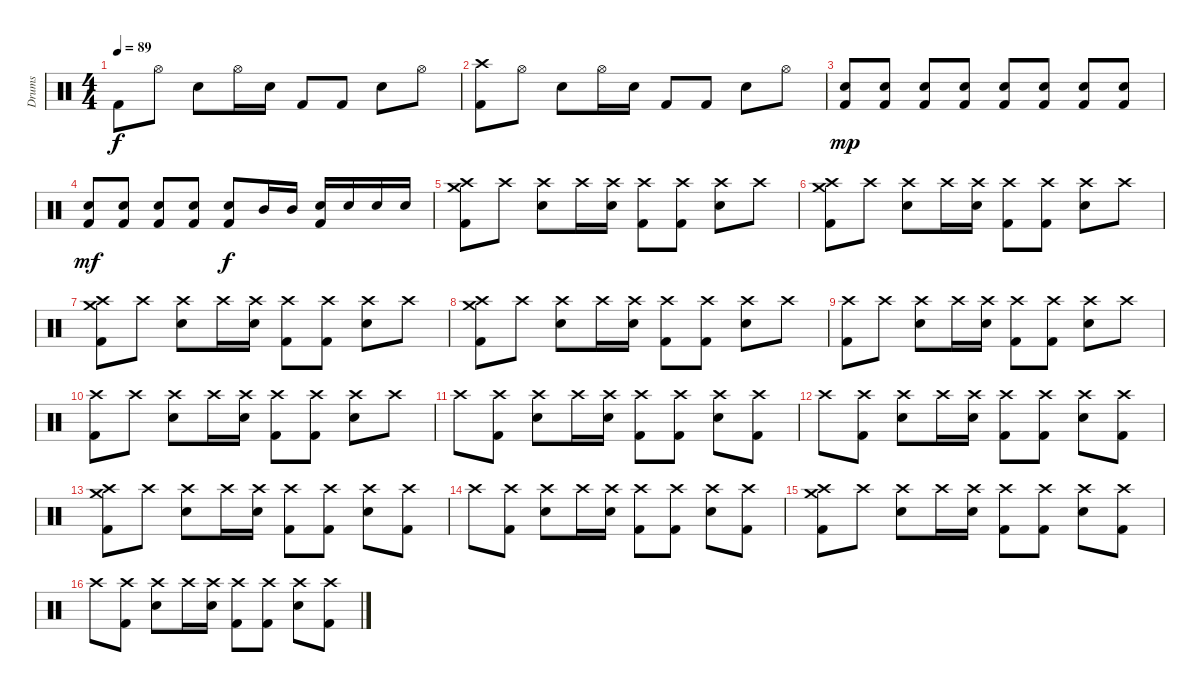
\track ("Drums" "Drums") {instrument percussion}
\staff {score}
\articulation defaults
\ts (4 4)
\tempo 89
\clef neutral
\ks c "Kick (hit) 2".8{dy f} "Hi-Hat (open)".8 "Electric Snare (hit)".8 "Hi-Hat (open)".16 "Electric Snare (hit)".16 "Kick (hit) 2".8 "Kick (hit) 2".8 "Electric Snare (hit)".8 "Hi-Hat (open)".8
|
("Crash high (hit)" "Kick (hit) 2").8 "Hi-Hat (open)".8 "Electric Snare (hit)".8 "Hi-Hat (open)".16 "Electric Snare (hit)".16 "Kick (hit) 2".8 "Kick (hit) 2".8 "Electric Snare (hit)".8 "Hi-Hat (open)".8 |
("Electric Snare (hit)" "Kick (hit) 2").8{dy mp} ("Electric Snare (hit)" "Kick (hit) 2").8 ("Electric Snare (hit)" "Kick (hit) 2").8 ("Electric Snare (hit)" "Kick (hit) 2").8 ("Electric Snare (hit)" "Kick (hit) 2").8 ("Electric Snare (hit)" "Kick (hit) 2").8 ("Electric Snare (hit)" "Kick (hit) 2").8 ("Electric Snare (hit)" "Kick (hit) 2").8 |
("Electric Snare (hit)" "Kick (hit) 2").8{dy mf} ("Electric Snare (hit)" "Kick (hit) 2").8 ("Electric Snare (hit)" "Kick (hit) 2").8 ("Electric Snare (hit)" "Kick (hit) 2").8 ("Electric Snare (hit)" "Kick (hit) 2").8{dy f} "Mid Tom (hit)".16 "Mid Tom (hit)".16 ("Electric Snare (hit)" "Kick (hit) 2").16 "Electric Snare (hit)".16 "Electric Snare (hit)".16 "Electric Snare (hit)".16 |
("Crash high (hit)" "Crash medium (hit)" "Kick (hit) 2").8 "Crash high (hit)".8 ("Crash high (hit)" "Electric Snare (hit)").8 "Crash high (hit)".16 ("Crash high (hit)" "Electric Snare (hit)").16 ("Crash high (hit)" "Kick (hit) 2").8 ("Crash high (hit)" "Kick (hit) 2").8 ("Crash high (hit)" "Electric Snare (hit)").8 "Crash high (hit)".8 |
("Crash high (hit)" "Crash medium (hit)" "Kick (hit) 2").8 "Crash high (hit)".8 ("Crash high (hit)" "Electric Snare (hit)").8 "Crash high (hit)".16 ("Crash high (hit)" "Electric Snare (hit)").16 ("Crash high (hit)" "Kick (hit) 2").8 ("Crash high (hit)" "Kick (hit) 2").8 ("Crash high (hit)" "Electric Snare (hit)").8 "Crash high (hit)".8 |
("Crash high (hit)" "Crash medium (hit)" "Kick (hit) 2").8 "Crash high (hit)".8 ("Crash high (hit)" "Electric Snare (hit)").8 "Crash high (hit)".16 ("Crash high (hit)" "Electric Snare (hit)").16 ("Crash high (hit)" "Kick (hit) 2").8 ("Crash high (hit)" "Kick (hit) 2").8 ("Crash high (hit)" "Electric Snare (hit)").8 "Crash high (hit)".8 |
("Crash high (hit)" "Crash medium (hit)" "Kick (hit) 2").8 "Crash high (hit)".8 ("Crash high (hit)" "Electric Snare (hit)").8 "Crash high (hit)".16 ("Crash high (hit)" "Electric Snare (hit)").16 ("Crash high (hit)" "Kick (hit) 2").8 ("Crash high (hit)" "Kick (hit) 2").8 ("Crash high (hit)" "Electric Snare (hit)").8 "Crash high (hit)".8 |
("Crash high (hit)" "Kick (hit) 2").8 "Crash high (hit)".8 ("Crash high (hit)" "Electric Snare (hit)").8 "Crash high (hit)".16 ("Crash high (hit)" "Electric Snare (hit)").16 ("Crash high (hit)" "Kick (hit) 2").8 ("Crash high (hit)" "Kick (hit) 2").8 ("Crash high (hit)" "Electric Snare (hit)").8 "Crash high (hit)".8 |
("Crash high (hit)" "Kick (hit) 2").8 "Crash high (hit)".8 ("Crash high (hit)" "Electric Snare (hit)").8 "Crash high (hit)".16 ("Crash high (hit)" "Electric Snare (hit)").16 ("Crash high (hit)" "Kick (hit) 2").8 ("Crash high (hit)" "Kick (hit) 2").8 ("Crash high (hit)" "Electric Snare (hit)").8 "Crash high (hit)".8 |
"Crash high (hit)".8 ("Crash high (hit)" "Kick (hit) 2").8 ("Crash high (hit)" "Electric Snare (hit)").8 "Crash high (hit)".16 ("Crash high (hit)" "Electric Snare (hit)").16 ("Crash high (hit)" "Kick (hit) 2").8 ("Crash high (hit)" "Kick (hit) 2").8 ("Crash high (hit)" "Electric Snare (hit)").8 ("Crash high (hit)" "Kick (hit) 2").8 |
"Crash high (hit)".8 ("Crash high (hit)" "Kick (hit) 2").8 ("Crash high (hit)" "Electric Snare (hit)").8 "Crash high (hit)".16 ("Crash high (hit)" "Electric Snare (hit)").16 ("Crash high (hit)" "Kick (hit) 2").8 ("Crash high (hit)" "Kick (hit) 2").8 ("Crash high (hit)" "Electric Snare (hit)").8 ("Crash high (hit)" "Kick (hit) 2").8 |
("Crash high (hit)" "Crash medium (hit)" "Kick (hit) 2").8 "Crash high (hit)".8 ("Crash high (hit)" "Electric Snare (hit)").8 "Crash high (hit)".16 ("Crash high (hit)" "Electric Snare (hit)").16 ("Crash high (hit)" "Kick (hit) 2").8 ("Crash high (hit)" "Kick (hit) 2").8 ("Crash high (hit)" "Electric Snare (hit)").8 ("Crash high (hit)" "Kick (hit) 2").8 |
"Crash high (hit)".8 ("Crash high (hit)" "Kick (hit) 2").8 ("Crash high (hit)" "Electric Snare (hit)").8 "Crash high (hit)".16 ("Crash high (hit)" "Electric Snare (hit)").16 ("Crash high (hit)" "Kick (hit) 2").8 ("Crash high (hit)" "Kick (hit) 2").8 ("Crash high (hit)" "Electric Snare (hit)").8 ("Crash high (hit)" "Kick (hit) 2").8 |
("Crash high (hit)" "Crash medium (hit)" "Kick (hit) 2").8 "Crash high (hit)".8 ("Crash high (hit)" "Electric Snare (hit)").8 "Crash high (hit)".16 ("Crash high (hit)" "Electric Snare (hit)").16 ("Crash high (hit)" "Kick (hit) 2").8 ("Crash high (hit)" "Kick (hit) 2").8 ("Crash high (hit)" "Electric Snare (hit)").8 ("Crash high (hit)" "Kick (hit) 2").8 |
"Crash high (hit)".8 ("Crash high (hit)" "Kick (hit) 2").8 ("Crash high (hit)" "Electric Snare (hit)").8 "Crash high (hit)".16 ("Crash high (hit)" "Electric Snare (hit)").16 ("Crash high (hit)" "Kick (hit) 2").8 ("Crash high (hit)" "Kick (hit) 2").8 ("Crash high (hit)" "Electric Snare (hit)").8 ("Crash high (hit)" "Kick (hit) 2").8
